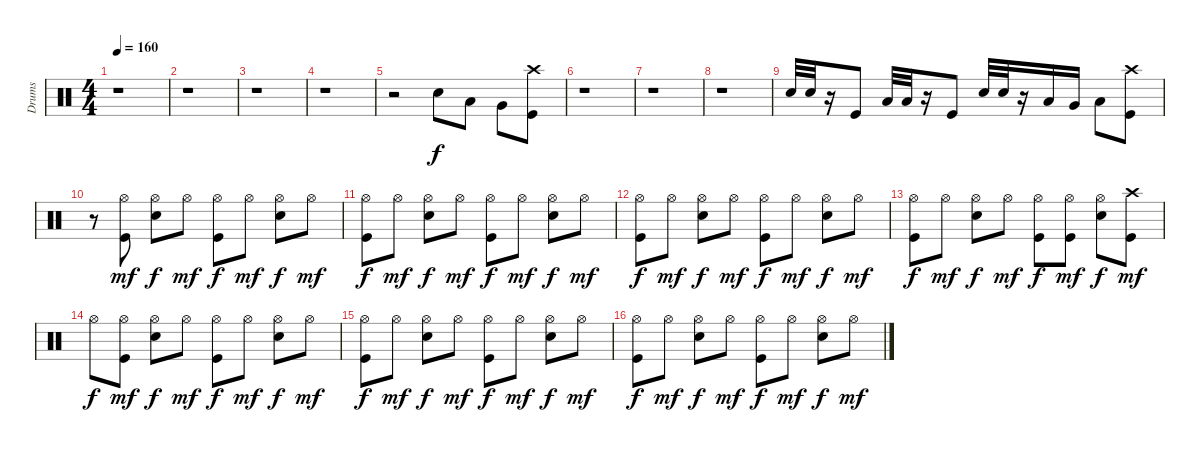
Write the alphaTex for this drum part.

\track ("Drums" "Drums") {instrument percussion}
\staff {score}
\articulation defaults
\ts (4 4)
\tempo 160
\clef neutral
\ks c
r.1{dy f} |
r.1 |
r.1 |
r.1 |
r.2 "Snare (hit) 2".8 "Low Tom (hit)".8 "Very Low Tom (hit)".8 ("Crash high (hit)" "Kick (hit)").8 |
r.1 |
r.1 |
r.1 |
"Snare (hit) 2".32 "Snare (hit) 2".32 r.16 "Kick (hit)".8 "Low Tom (hit)".32 "Low Tom (hit)".32 r.16 "Kick (hit)".8 "Snare (hit) 2".32 "Snare (hit) 2".32 r.16 "Low Tom (hit)".16 "Very Low Tom (hit)".16 "Low Floor Tom (hit)".8 ("Crash high (hit)" "Kick (hit)").8 |
r.8 ("Hi-Hat (open)" "Kick (hit)").8{dy mf} ("Hi-Hat (open)" "Snare (hit) 2").8{dy f} "Hi-Hat (open)".8{dy mf} ("Hi-Hat (open)" "Kick (hit)").8{dy f} "Hi-Hat (open)".8{dy mf} ("Hi-Hat (open)" "Snare (hit) 2").8{dy f} "Hi-Hat (open)".8{dy mf} |
("Hi-Hat (open)" "Kick (hit)").8{dy f} "Hi-Hat (open)".8{dy mf} ("Hi-Hat (open)" "Snare (hit) 2").8{dy f} "Hi-Hat (open)".8{dy mf} ("Hi-Hat (open)" "Kick (hit)").8{dy f} "Hi-Hat (open)".8{dy mf} ("Hi-Hat (open)" "Snare (hit) 2").8{dy f} "Hi-Hat (open)".8{dy mf} |
("Hi-Hat (open)" "Kick (hit)").8{dy f} "Hi-Hat (open)".8{dy mf} ("Hi-Hat (open)" "Snare (hit) 2").8{dy f} "Hi-Hat (open)".8{dy mf} ("Hi-Hat (open)" "Kick (hit)").8{dy f} "Hi-Hat (open)".8{dy mf} ("Hi-Hat (open)" "Snare (hit) 2").8{dy f} "Hi-Hat (open)".8{dy mf} |
("Hi-Hat (open)" "Kick (hit)").8{dy f} "Hi-Hat (open)".8{dy mf} ("Hi-Hat (open)" "Snare (hit) 2").8{dy f} "Hi-Hat (open)".8{dy mf} ("Hi-Hat (open)" "Kick (hit)").8{dy f} ("Hi-Hat (open)" "Kick (hit)").8{dy mf} ("Hi-Hat (open)" "Snare (hit) 2").8{dy f} ("Crash high (hit)" "Kick (hit)").8{dy mf} |
"Hi-Hat (open)".8{dy f} ("Hi-Hat (open)" "Kick (hit)").8{dy mf} ("Hi-Hat (open)" "Snare (hit) 2").8{dy f} "Hi-Hat (open)".8{dy mf} ("Hi-Hat (open)" "Kick (hit)").8{dy f} "Hi-Hat (open)".8{dy mf} ("Hi-Hat (open)" "Snare (hit) 2").8{dy f} "Hi-Hat (open)".8{dy mf} |
("Hi-Hat (open)" "Kick (hit)").8{dy f} "Hi-Hat (open)".8{dy mf} ("Hi-Hat (open)" "Snare (hit) 2").8{dy f} "Hi-Hat (open)".8{dy mf} ("Hi-Hat (open)" "Kick (hit)").8{dy f} "Hi-Hat (open)".8{dy mf} ("Hi-Hat (open)" "Snare (hit) 2").8{dy f} "Hi-Hat (open)".8{dy mf} |
("Hi-Hat (open)" "Kick (hit)").8{dy f} "Hi-Hat (open)".8{dy mf} ("Hi-Hat (open)" "Snare (hit) 2").8{dy f} "Hi-Hat (open)".8{dy mf} ("Hi-Hat (open)" "Kick (hit)").8{dy f} "Hi-Hat (open)".8{dy mf} ("Hi-Hat (open)" "Snare (hit) 2").8{dy f} "Hi-Hat (open)".8{dy mf}
